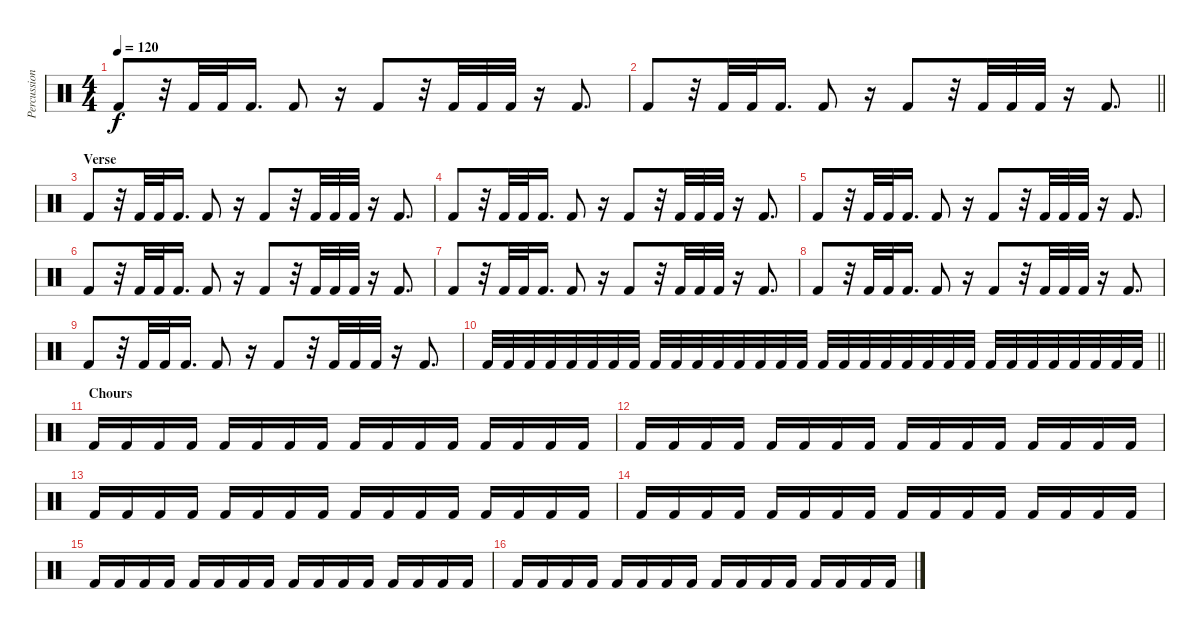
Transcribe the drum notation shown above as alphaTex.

\track ("Percussioni" "Percussion") {instrument percussion}
\staff
\articulation defaults
\ts (4 4)
\tempo 120
\clef neutral
\ks c "Kick (hit) 2".8{dy f}
r.32 "Kick (hit) 2".32 "Kick (hit) 2".32 "Kick (hit) 2".16{d} "Kick (hit) 2".8 r.16 "Kick (hit) 2".8 r.32 "Kick (hit) 2".32 "Kick (hit) 2".32 "Kick (hit) 2".32 r.16 "Kick (hit) 2".8{d} |
\barLineRight lightlight "Kick (hit) 2".8
r.32 "Kick (hit) 2".32 "Kick (hit) 2".32 "Kick (hit) 2".16{d} "Kick (hit) 2".8 r.16 "Kick (hit) 2".8 r.32 "Kick (hit) 2".32 "Kick (hit) 2".32 "Kick (hit) 2".32 r.16 "Kick (hit) 2".8{d} |
\section ("" "Verse")
"Kick (hit) 2".8 r.32 "Kick (hit) 2".32 "Kick (hit) 2".32 "Kick (hit) 2".16{d} "Kick (hit) 2".8 r.16 "Kick (hit) 2".8 r.32 "Kick (hit) 2".32 "Kick (hit) 2".32 "Kick (hit) 2".32 r.16 "Kick (hit) 2".8{d} |
"Kick (hit) 2".8 r.32 "Kick (hit) 2".32 "Kick (hit) 2".32 "Kick (hit) 2".16{d} "Kick (hit) 2".8 r.16 "Kick (hit) 2".8 r.32 "Kick (hit) 2".32 "Kick (hit) 2".32 "Kick (hit) 2".32 r.16 "Kick (hit) 2".8{d} |
"Kick (hit) 2".8 r.32 "Kick (hit) 2".32 "Kick (hit) 2".32 "Kick (hit) 2".16{d} "Kick (hit) 2".8 r.16 "Kick (hit) 2".8 r.32 "Kick (hit) 2".32 "Kick (hit) 2".32 "Kick (hit) 2".32 r.16 "Kick (hit) 2".8{d} |
"Kick (hit) 2".8 r.32 "Kick (hit) 2".32 "Kick (hit) 2".32 "Kick (hit) 2".16{d} "Kick (hit) 2".8 r.16 "Kick (hit) 2".8 r.32 "Kick (hit) 2".32 "Kick (hit) 2".32 "Kick (hit) 2".32 r.16 "Kick (hit) 2".8{d} |
"Kick (hit) 2".8 r.32 "Kick (hit) 2".32 "Kick (hit) 2".32 "Kick (hit) 2".16{d} "Kick (hit) 2".8 r.16 "Kick (hit) 2".8 r.32 "Kick (hit) 2".32 "Kick (hit) 2".32 "Kick (hit) 2".32 r.16 "Kick (hit) 2".8{d} |
"Kick (hit) 2".8 r.32 "Kick (hit) 2".32 "Kick (hit) 2".32 "Kick (hit) 2".16{d} "Kick (hit) 2".8 r.16 "Kick (hit) 2".8 r.32 "Kick (hit) 2".32 "Kick (hit) 2".32 "Kick (hit) 2".32 r.16 "Kick (hit) 2".8{d} |
"Kick (hit) 2".8 r.32 "Kick (hit) 2".32 "Kick (hit) 2".32 "Kick (hit) 2".16{d} "Kick (hit) 2".8 r.16 "Kick (hit) 2".8 r.32 "Kick (hit) 2".32 "Kick (hit) 2".32 "Kick (hit) 2".32 r.16 "Kick (hit) 2".8{d} |
\barLineRight lightlight "Kick (hit) 2".32 "Kick (hit) 2".32 "Kick (hit) 2".32 "Kick (hit) 2".32 "Kick (hit) 2".32 "Kick (hit) 2".32 "Kick (hit) 2".32 "Kick (hit) 2".32 "Kick (hit) 2".32 "Kick (hit) 2".32 "Kick (hit) 2".32 "Kick (hit) 2".32 "Kick (hit) 2".32 "Kick (hit) 2".32 "Kick (hit) 2".32 "Kick (hit) 2".32 "Kick (hit) 2".32 "Kick (hit) 2".32 "Kick (hit) 2".32 "Kick (hit) 2".32 "Kick (hit) 2".32 "Kick (hit) 2".32 "Kick (hit) 2".32 "Kick (hit) 2".32 "Kick (hit) 2".32 "Kick (hit) 2".32 "Kick (hit) 2".32 "Kick (hit) 2".32 "Kick (hit) 2".32 "Kick (hit) 2".32 "Kick (hit) 2".32 "Kick (hit) 2".32
|
\section ("" "Chours")
"Kick (hit) 2".16 "Kick (hit) 2".16 "Kick (hit) 2".16 "Kick (hit) 2".16 "Kick (hit) 2".16 "Kick (hit) 2".16 "Kick (hit) 2".16 "Kick (hit) 2".16 "Kick (hit) 2".16 "Kick (hit) 2".16 "Kick (hit) 2".16 "Kick (hit) 2".16 "Kick (hit) 2".16 "Kick (hit) 2".16 "Kick (hit) 2".16 "Kick (hit) 2".16 |
"Kick (hit) 2".16 "Kick (hit) 2".16 "Kick (hit) 2".16 "Kick (hit) 2".16 "Kick (hit) 2".16 "Kick (hit) 2".16 "Kick (hit) 2".16 "Kick (hit) 2".16 "Kick (hit) 2".16 "Kick (hit) 2".16 "Kick (hit) 2".16 "Kick (hit) 2".16 "Kick (hit) 2".16 "Kick (hit) 2".16 "Kick (hit) 2".16 "Kick (hit) 2".16 |
"Kick (hit) 2".16 "Kick (hit) 2".16 "Kick (hit) 2".16 "Kick (hit) 2".16 "Kick (hit) 2".16 "Kick (hit) 2".16 "Kick (hit) 2".16 "Kick (hit) 2".16 "Kick (hit) 2".16 "Kick (hit) 2".16 "Kick (hit) 2".16 "Kick (hit) 2".16 "Kick (hit) 2".16 "Kick (hit) 2".16 "Kick (hit) 2".16 "Kick (hit) 2".16 |
"Kick (hit) 2".16 "Kick (hit) 2".16 "Kick (hit) 2".16 "Kick (hit) 2".16 "Kick (hit) 2".16 "Kick (hit) 2".16 "Kick (hit) 2".16 "Kick (hit) 2".16 "Kick (hit) 2".16 "Kick (hit) 2".16 "Kick (hit) 2".16 "Kick (hit) 2".16 "Kick (hit) 2".16 "Kick (hit) 2".16 "Kick (hit) 2".16 "Kick (hit) 2".16 |
"Kick (hit) 2".16 "Kick (hit) 2".16 "Kick (hit) 2".16 "Kick (hit) 2".16 "Kick (hit) 2".16 "Kick (hit) 2".16 "Kick (hit) 2".16 "Kick (hit) 2".16 "Kick (hit) 2".16 "Kick (hit) 2".16 "Kick (hit) 2".16 "Kick (hit) 2".16 "Kick (hit) 2".16 "Kick (hit) 2".16 "Kick (hit) 2".16 "Kick (hit) 2".16 |
"Kick (hit) 2".16 "Kick (hit) 2".16 "Kick (hit) 2".16 "Kick (hit) 2".16 "Kick (hit) 2".16 "Kick (hit) 2".16 "Kick (hit) 2".16 "Kick (hit) 2".16 "Kick (hit) 2".16 "Kick (hit) 2".16 "Kick (hit) 2".16 "Kick (hit) 2".16 "Kick (hit) 2".16 "Kick (hit) 2".16 "Kick (hit) 2".16 "Kick (hit) 2".16
